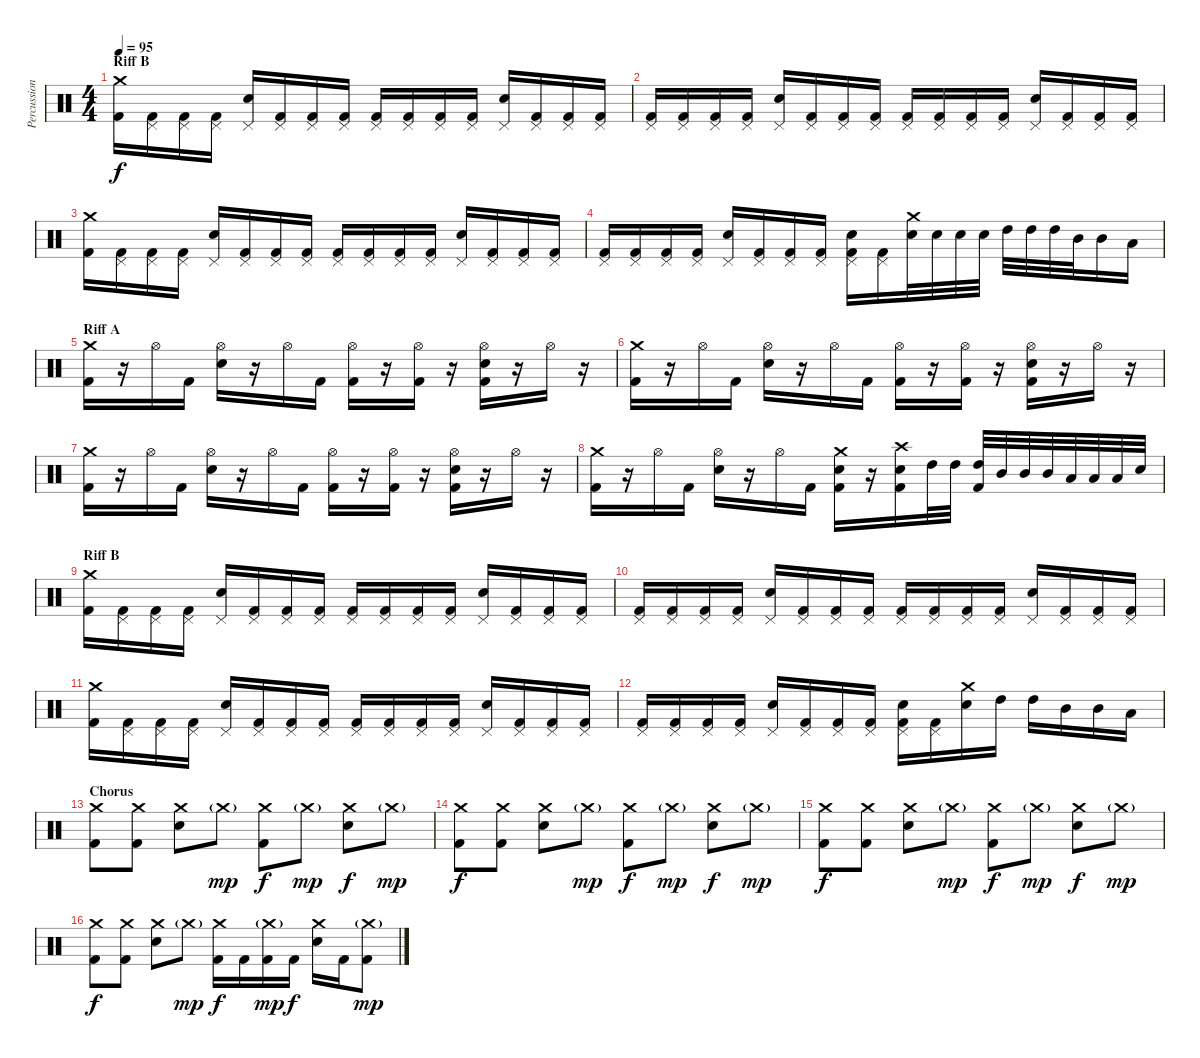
\track ("Percussions" "Percussion") {instrument percussion}
\staff {score}
\articulation defaults
\ts (4 4)
\section ("" "Riff B")
\tempo 95
\clef neutral
\ks c
("Crash medium (hit)" "Kick (hit) 2").16{dy f} ("Pedal Hi-Hat (hit)" "Kick (hit) 2").16 ("Pedal Hi-Hat (hit)" "Kick (hit) 2").16 ("Pedal Hi-Hat (hit)" "Kick (hit) 2").16 ("Pedal Hi-Hat (hit)" "Electric Snare (hit)").16 ("Pedal Hi-Hat (hit)" "Kick (hit) 2").16 ("Pedal Hi-Hat (hit)" "Kick (hit) 2").16 ("Pedal Hi-Hat (hit)" "Kick (hit) 2").16 ("Pedal Hi-Hat (hit)" "Kick (hit) 2").16 ("Pedal Hi-Hat (hit)" "Kick (hit) 2").16 ("Pedal Hi-Hat (hit)" "Kick (hit) 2").16 ("Pedal Hi-Hat (hit)" "Kick (hit) 2").16 ("Pedal Hi-Hat (hit)" "Electric Snare (hit)").16 ("Pedal Hi-Hat (hit)" "Kick (hit) 2").16 ("Pedal Hi-Hat (hit)" "Kick (hit) 2").16 ("Pedal Hi-Hat (hit)" "Kick (hit) 2").16 |
("Pedal Hi-Hat (hit)" "Kick (hit) 2").16 ("Pedal Hi-Hat (hit)" "Kick (hit) 2").16 ("Pedal Hi-Hat (hit)" "Kick (hit) 2").16 ("Pedal Hi-Hat (hit)" "Kick (hit) 2").16 ("Pedal Hi-Hat (hit)" "Electric Snare (hit)").16 ("Pedal Hi-Hat (hit)" "Kick (hit) 2").16 ("Pedal Hi-Hat (hit)" "Kick (hit) 2").16 ("Pedal Hi-Hat (hit)" "Kick (hit) 2").16 ("Pedal Hi-Hat (hit)" "Kick (hit) 2").16 ("Pedal Hi-Hat (hit)" "Kick (hit) 2").16 ("Pedal Hi-Hat (hit)" "Kick (hit) 2").16 ("Pedal Hi-Hat (hit)" "Kick (hit) 2").16 ("Pedal Hi-Hat (hit)" "Electric Snare (hit)").16 ("Pedal Hi-Hat (hit)" "Kick (hit) 2").16 ("Pedal Hi-Hat (hit)" "Kick (hit) 2").16 ("Pedal Hi-Hat (hit)" "Kick (hit) 2").16 |
("Crash medium (hit)" "Kick (hit) 2").16 ("Pedal Hi-Hat (hit)" "Kick (hit) 2").16 ("Pedal Hi-Hat (hit)" "Kick (hit) 2").16 ("Pedal Hi-Hat (hit)" "Kick (hit) 2").16 ("Pedal Hi-Hat (hit)" "Electric Snare (hit)").16 ("Pedal Hi-Hat (hit)" "Kick (hit) 2").16 ("Pedal Hi-Hat (hit)" "Kick (hit) 2").16 ("Pedal Hi-Hat (hit)" "Kick (hit) 2").16 ("Pedal Hi-Hat (hit)" "Kick (hit) 2").16 ("Pedal Hi-Hat (hit)" "Kick (hit) 2").16 ("Pedal Hi-Hat (hit)" "Kick (hit) 2").16 ("Pedal Hi-Hat (hit)" "Kick (hit) 2").16 ("Pedal Hi-Hat (hit)" "Electric Snare (hit)").16 ("Pedal Hi-Hat (hit)" "Kick (hit) 2").16 ("Pedal Hi-Hat (hit)" "Kick (hit) 2").16 ("Pedal Hi-Hat (hit)" "Kick (hit) 2").16 |
("Pedal Hi-Hat (hit)" "Kick (hit) 2").16 ("Pedal Hi-Hat (hit)" "Kick (hit) 2").16 ("Pedal Hi-Hat (hit)" "Kick (hit) 2").16 ("Pedal Hi-Hat (hit)" "Kick (hit) 2").16 ("Pedal Hi-Hat (hit)" "Electric Snare (hit)").16 ("Pedal Hi-Hat (hit)" "Kick (hit) 2").16 ("Pedal Hi-Hat (hit)" "Kick (hit) 2").16 ("Pedal Hi-Hat (hit)" "Kick (hit) 2").16 ("Pedal Hi-Hat (hit)" "Electric Snare (hit)" "Kick (hit) 2").16 ("Pedal Hi-Hat (hit)" "Kick (hit) 2").16 ("Crash medium (hit)" "Electric Snare (hit)").32 "Electric Snare (hit)".32 "Electric Snare (hit)".32 "Electric Snare (hit)".32 "High Tom (hit)".32 "High Tom (hit)".32 "High Tom (hit)".32 "Mid Tom (hit)".32 "Mid Tom (hit)".16 "Low Tom (hit)".16 |
\section ("" "Riff A")
("Crash medium (hit)" "Kick (hit) 2").16 r.16 "Hi-Hat (open)".16 "Kick (hit) 2".16 ("Hi-Hat (open)" "Electric Snare (hit)").16 r.16 "Hi-Hat (open)".16 "Kick (hit) 2".16 ("Hi-Hat (open)" "Kick (hit) 2").16 r.16 ("Hi-Hat (open)" "Kick (hit) 2").16 r.16 ("Hi-Hat (open)" "Electric Snare (hit)" "Kick (hit) 2").16 r.16 "Hi-Hat (open)".16 r.16 |
("Crash medium (hit)" "Kick (hit) 2").16 r.16 "Hi-Hat (open)".16 "Kick (hit) 2".16 ("Hi-Hat (open)" "Electric Snare (hit)").16 r.16 "Hi-Hat (open)".16 "Kick (hit) 2".16 ("Hi-Hat (open)" "Kick (hit) 2").16 r.16 ("Hi-Hat (open)" "Kick (hit) 2").16 r.16 ("Hi-Hat (open)" "Electric Snare (hit)" "Kick (hit) 2").16 r.16 "Hi-Hat (open)".16 r.16 |
("Crash medium (hit)" "Kick (hit) 2").16 r.16 "Hi-Hat (open)".16 "Kick (hit) 2".16 ("Hi-Hat (open)" "Electric Snare (hit)").16 r.16 "Hi-Hat (open)".16 "Kick (hit) 2".16 ("Hi-Hat (open)" "Kick (hit) 2").16 r.16 ("Hi-Hat (open)" "Kick (hit) 2").16 r.16 ("Hi-Hat (open)" "Electric Snare (hit)" "Kick (hit) 2").16 r.16 "Hi-Hat (open)".16 r.16 |
("Crash medium (hit)" "Kick (hit) 2").16 r.16 "Hi-Hat (open)".16 "Kick (hit) 2".16 ("Hi-Hat (open)" "Electric Snare (hit)").16 r.16 "Hi-Hat (open)".16 "Kick (hit) 2".16 ("Crash medium (hit)" "Electric Snare (hit)" "Kick (hit) 2").16 r.16 ("Crash high (hit)" "Electric Snare (hit)" "Kick (hit) 2").16 "High Tom (hit)".32 "High Tom (hit)".32 ("High Tom (hit)" "Kick (hit) 2").32 "Mid Tom (hit)".32 "Mid Tom (hit)".32 "Mid Tom (hit)".32 "Low Tom (hit)".32 "Low Tom (hit)".32 "Low Tom (hit)".32 "Electric Snare (hit)".32 |
\section ("" "Riff B")
("Crash medium (hit)" "Kick (hit) 2").16 ("Pedal Hi-Hat (hit)" "Kick (hit) 2").16 ("Pedal Hi-Hat (hit)" "Kick (hit) 2").16 ("Pedal Hi-Hat (hit)" "Kick (hit) 2").16 ("Pedal Hi-Hat (hit)" "Electric Snare (hit)").16 ("Pedal Hi-Hat (hit)" "Kick (hit) 2").16 ("Pedal Hi-Hat (hit)" "Kick (hit) 2").16 ("Pedal Hi-Hat (hit)" "Kick (hit) 2").16 ("Pedal Hi-Hat (hit)" "Kick (hit) 2").16 ("Pedal Hi-Hat (hit)" "Kick (hit) 2").16 ("Pedal Hi-Hat (hit)" "Kick (hit) 2").16 ("Pedal Hi-Hat (hit)" "Kick (hit) 2").16 ("Pedal Hi-Hat (hit)" "Electric Snare (hit)").16 ("Pedal Hi-Hat (hit)" "Kick (hit) 2").16 ("Pedal Hi-Hat (hit)" "Kick (hit) 2").16 ("Pedal Hi-Hat (hit)" "Kick (hit) 2").16 |
("Pedal Hi-Hat (hit)" "Kick (hit) 2").16 ("Pedal Hi-Hat (hit)" "Kick (hit) 2").16 ("Pedal Hi-Hat (hit)" "Kick (hit) 2").16 ("Pedal Hi-Hat (hit)" "Kick (hit) 2").16 ("Pedal Hi-Hat (hit)" "Electric Snare (hit)").16 ("Pedal Hi-Hat (hit)" "Kick (hit) 2").16 ("Pedal Hi-Hat (hit)" "Kick (hit) 2").16 ("Pedal Hi-Hat (hit)" "Kick (hit) 2").16 ("Pedal Hi-Hat (hit)" "Kick (hit) 2").16 ("Pedal Hi-Hat (hit)" "Kick (hit) 2").16 ("Pedal Hi-Hat (hit)" "Kick (hit) 2").16 ("Pedal Hi-Hat (hit)" "Kick (hit) 2").16 ("Pedal Hi-Hat (hit)" "Electric Snare (hit)").16 ("Pedal Hi-Hat (hit)" "Kick (hit) 2").16 ("Pedal Hi-Hat (hit)" "Kick (hit) 2").16 ("Pedal Hi-Hat (hit)" "Kick (hit) 2").16 |
("Crash medium (hit)" "Kick (hit) 2").16 ("Pedal Hi-Hat (hit)" "Kick (hit) 2").16 ("Pedal Hi-Hat (hit)" "Kick (hit) 2").16 ("Pedal Hi-Hat (hit)" "Kick (hit) 2").16 ("Pedal Hi-Hat (hit)" "Electric Snare (hit)").16 ("Pedal Hi-Hat (hit)" "Kick (hit) 2").16 ("Pedal Hi-Hat (hit)" "Kick (hit) 2").16 ("Pedal Hi-Hat (hit)" "Kick (hit) 2").16 ("Pedal Hi-Hat (hit)" "Kick (hit) 2").16 ("Pedal Hi-Hat (hit)" "Kick (hit) 2").16 ("Pedal Hi-Hat (hit)" "Kick (hit) 2").16 ("Pedal Hi-Hat (hit)" "Kick (hit) 2").16 ("Pedal Hi-Hat (hit)" "Electric Snare (hit)").16 ("Pedal Hi-Hat (hit)" "Kick (hit) 2").16 ("Pedal Hi-Hat (hit)" "Kick (hit) 2").16 ("Pedal Hi-Hat (hit)" "Kick (hit) 2").16 |
("Pedal Hi-Hat (hit)" "Kick (hit) 2").16 ("Pedal Hi-Hat (hit)" "Kick (hit) 2").16 ("Pedal Hi-Hat (hit)" "Kick (hit) 2").16 ("Pedal Hi-Hat (hit)" "Kick (hit) 2").16 ("Pedal Hi-Hat (hit)" "Electric Snare (hit)").16 ("Pedal Hi-Hat (hit)" "Kick (hit) 2").16 ("Pedal Hi-Hat (hit)" "Kick (hit) 2").16 ("Pedal Hi-Hat (hit)" "Kick (hit) 2").16 ("Pedal Hi-Hat (hit)" "Electric Snare (hit)" "Kick (hit) 2").16 ("Pedal Hi-Hat (hit)" "Kick (hit) 2").16 ("Crash medium (hit)" "Electric Snare (hit)").16 "High Tom (hit)".16 "High Tom (hit)".16 "Mid Tom (hit)".16 "Mid Tom (hit)".16 "Low Tom (hit)".16 |
\section ("" "Chorus")
("Crash medium (hit)" "Kick (hit) 2").8 ("Crash medium (hit)" "Kick (hit) 2").8 ("Crash medium (hit)" "Electric Snare (hit)").8 "Crash medium (hit)"{g}.8{dy mp} ("Crash medium (hit)" "Kick (hit) 2").8{dy f} "Crash medium (hit)"{g}.8{dy mp} ("Crash medium (hit)" "Electric Snare (hit)").8{dy f} "Crash medium (hit)"{g}.8{dy mp} |
("Crash medium (hit)" "Kick (hit) 2").8{dy f} ("Crash medium (hit)" "Kick (hit) 2").8 ("Crash medium (hit)" "Electric Snare (hit)").8 "Crash medium (hit)"{g}.8{dy mp} ("Crash medium (hit)" "Kick (hit) 2").8{dy f} "Crash medium (hit)"{g}.8{dy mp} ("Crash medium (hit)" "Electric Snare (hit)").8{dy f} "Crash medium (hit)"{g}.8{dy mp} |
("Crash medium (hit)" "Kick (hit) 2").8{dy f} ("Crash medium (hit)" "Kick (hit) 2").8 ("Crash medium (hit)" "Electric Snare (hit)").8 "Crash medium (hit)"{g}.8{dy mp} ("Crash medium (hit)" "Kick (hit) 2").8{dy f} "Crash medium (hit)"{g}.8{dy mp} ("Crash medium (hit)" "Electric Snare (hit)").8{dy f} "Crash medium (hit)"{g}.8{dy mp} |
("Crash medium (hit)" "Kick (hit) 2").8{dy f} ("Crash medium (hit)" "Kick (hit) 2").8 ("Crash medium (hit)" "Electric Snare (hit)").8 "Crash medium (hit)"{g}.8{dy mp} ("Crash medium (hit)" "Kick (hit) 2").16{dy f} "Kick (hit) 2".16 ("Crash medium (hit)"{g} "Kick (hit) 2").16{dy mp} "Kick (hit) 2".16{dy f} ("Crash medium (hit)" "Electric Snare (hit)").16 "Kick (hit) 2".16 ("Crash medium (hit)"{g} "Kick (hit) 2").8{dy mp}
